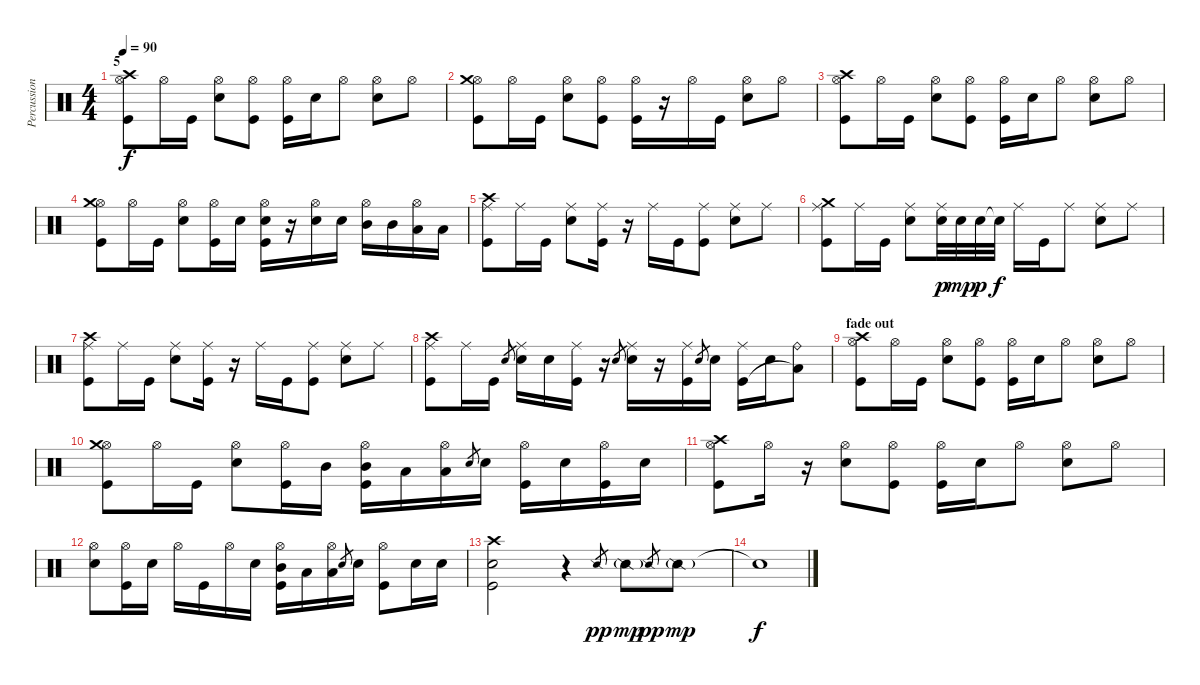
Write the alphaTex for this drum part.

\track ("Percussions" "Percussion") {instrument percussion}
\staff {score}
\articulation defaults
\ts (4 4)
\section ("" "5")
\tempo 90
\clef neutral
\ks c
("Hi-Hat (open)" "Crash high (hit)" "Kick (hit)").8{dy f} "Hi-Hat (open)".16 "Kick (hit)".16 ("Hi-Hat (open)" "Snare (hit) 2").8 ("Hi-Hat (open)" "Kick (hit)").8 ("Hi-Hat (open)" "Kick (hit)").16 "Snare (hit) 2".16 "Hi-Hat (open)".8 ("Hi-Hat (open)" "Snare (hit) 2").8 "Hi-Hat (open)".8 |
("Hi-Hat (open)" "Crash medium (hit)" "Kick (hit)").8 "Hi-Hat (open)".16 "Kick (hit)".16 ("Hi-Hat (open)" "Snare (hit) 2").8 ("Hi-Hat (open)" "Kick (hit)").8 ("Hi-Hat (open)" "Kick (hit)").16 r.16 "Hi-Hat (open)".16 "Kick (hit)".16 ("Hi-Hat (open)" "Snare (hit) 2").8 "Hi-Hat (open)".8 |
("Hi-Hat (open)" "Crash high (hit)" "Kick (hit)").8 "Hi-Hat (open)".16 "Kick (hit)".16 ("Hi-Hat (open)" "Snare (hit) 2").8 ("Hi-Hat (open)" "Kick (hit)").8 ("Hi-Hat (open)" "Kick (hit)").16 "Snare (hit) 2".16 "Hi-Hat (open)".8 ("Hi-Hat (open)" "Snare (hit) 2").8 "Hi-Hat (open)".8 |
("Hi-Hat (open)" "Crash medium (hit)" "Kick (hit)").8 "Hi-Hat (open)".16 "Kick (hit)".16 ("Hi-Hat (open)" "Snare (hit) 2").8 ("Hi-Hat (open)" "Kick (hit)").16 "Snare (hit) 2".16 ("Hi-Hat (open)" "Snare (hit) 2" "Kick (hit)").16 r.16 ("Hi-Hat (open)" "Snare (hit) 2").16 "Snare (hit) 2".16 ("Hi-Hat (open)" "Mid Tom (hit)").16 "Mid Tom (hit)".16 ("Hi-Hat (open)" "Low Tom (hit)").16 "Low Tom (hit)".16 |
("Ride (middle)" "Crash high (hit)" "Kick (hit)").8 "Ride (middle)".16 "Kick (hit)".16 ("Ride (middle)" "Snare (hit) 2").8 ("Ride (middle)" "Kick (hit)").16 r.16 "Ride (middle)".16 "Kick (hit)".16 ("Ride (middle)" "Kick (hit)").8 ("Ride (middle)" "Snare (hit) 2").8 "Ride (middle)".8 |
("Ride (middle)" "Crash medium (hit)" "Kick (hit)").8 "Ride (middle)".16 "Kick (hit)".16 ("Ride (middle)" "Snare (hit) 2").8 ("Ride (middle)" "Snare (hit) 2").32{dy p} "Snare (hit) 2".32{dy mp} "Snare (hit) 2".32{dy p} "Snare (hit)"{t}.32{dy f} "Ride (middle)".16 "Kick (hit)".16 "Ride (middle)".8 ("Ride (middle)" "Snare (hit) 2").8 "Ride (middle)".8 |
("Ride (middle)" "Crash high (hit)" "Kick (hit)").8 "Ride (middle)".16 "Kick (hit)".16 ("Ride (middle)" "Snare (hit) 2").8 ("Ride (middle)" "Kick (hit)").16 r.16 "Ride (middle)".16 "Kick (hit)".16 ("Ride (middle)" "Kick (hit)").8 ("Ride (middle)" "Snare (hit) 2").8 "Ride (middle)".8 |
("Ride (middle)" "Crash high (hit)" "Kick (hit)").8 "Ride (middle)".16 "Kick (hit)".16 "Snare (hit) 2".8{gr} ("Ride (middle)" "Snare (hit) 2").16 "Snare (hit) 2".16 ("Ride (middle)" "Kick (hit)").16 r.16 "Snare (hit) 2".8{gr} ("Ride (middle)" "Snare (hit) 2").16 r.16 ("Ride (middle)" "Kick (hit)").16 "Snare (hit) 2".8{gr} "Snare (hit) 2".16 ("Ride (middle)" "Kick (hit)").16 "Snare (hit) 2".16 ("Ride (bell)" "Low Tom (hit)"{t}).8 |
\section ("" "fade out")
("Hi-Hat (open)" "Crash high (hit)" "Kick (hit)").8 "Hi-Hat (open)".16 "Kick (hit)".16 ("Hi-Hat (open)" "Snare (hit) 2").8 ("Hi-Hat (open)" "Kick (hit)").8 ("Hi-Hat (open)" "Kick (hit)").16 "Snare (hit) 2".16 "Hi-Hat (open)".8 ("Hi-Hat (open)" "Snare (hit) 2").8 "Hi-Hat (open)".8 |
("Hi-Hat (open)" "Crash medium (hit)" "Kick (hit)").8 "Hi-Hat (open)".16 "Kick (hit)".16 ("Hi-Hat (open)" "Snare (hit) 2").8 ("Hi-Hat (open)" "Kick (hit)").16 "Mid Tom (hit)".16 ("Hi-Hat (open)" "Mid Tom (hit)" "Kick (hit)").16 "Low Tom (hit)".16 ("Hi-Hat (open)" "Low Tom (hit)").16 "Snare (hit) 2".8{gr} "Snare (hit) 2".16 ("Hi-Hat (open)" "Kick (hit)").16 "Snare (hit) 2".16 ("Hi-Hat (open)" "Kick (hit)").16 "Snare (hit) 2".16 |
("Hi-Hat (open)" "Crash high (hit)" "Kick (hit)").8 "Hi-Hat (open)".16 r.16 ("Hi-Hat (open)" "Snare (hit) 2").8 ("Hi-Hat (open)" "Kick (hit)").8 ("Hi-Hat (open)" "Kick (hit)").16 "Snare (hit) 2".16 "Hi-Hat (open)".8 ("Hi-Hat (open)" "Snare (hit) 2").8 "Hi-Hat (open)".8 |
("Hi-Hat (open)" "Snare (hit) 2").8 ("Hi-Hat (open)" "Kick (hit)").16 "Snare (hit) 2".16 "Hi-Hat (open)".16 "Kick (hit)".16 "Hi-Hat (open)".16 "Snare (hit) 2".16 ("Hi-Hat (open)" "Mid Tom (hit)" "Kick (hit)").16 "Low Tom (hit)".16 ("Hi-Hat (open)" "Low Tom (hit)").16 "Snare (hit) 2".8{gr} "Snare (hit) 2".16 ("Hi-Hat (open)" "Kick (hit)").8 "Snare (hit) 2".16 "Snare (hit) 2".16 |
("Crash high (hit)" "Snare (hit) 2" "Kick (hit)").2 r.4 "Snare (side stick) 2".8{gr dy pp} "Snare (side stick) 2"{g}.8{dy mp} "Snare (side stick) 2".8{gr dy pp} "Snare (side stick) 2"{g}.8{dy mp} |
"Snare (hit)"{t}.1{dy f}
